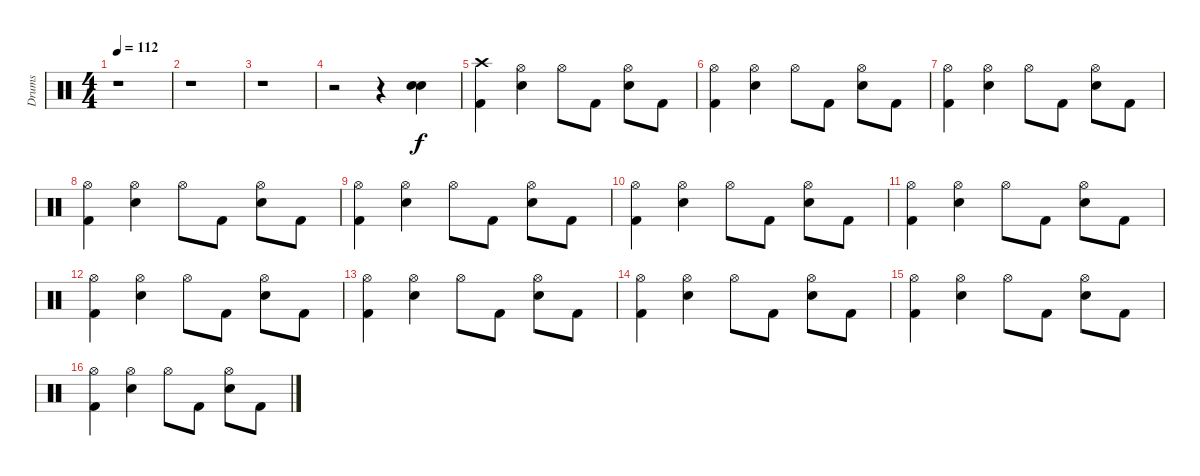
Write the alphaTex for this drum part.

\track ("Drums" "Drums") {instrument percussion}
\staff {score}
\articulation defaults
\ts (4 4)
\tempo 112
\clef neutral
\ks c
r.1{dy f} |
r.1 |
r.1 |
r.2 r.4 ("Snare (hit) 2" "Snare (hit) 2").4 |
("Crash high (hit)" "Kick (hit) 2").4 ("Hi-Hat (open)" "Snare (hit) 2").4 "Hi-Hat (open)".8 "Kick (hit) 2".8 ("Hi-Hat (open)" "Snare (hit) 2").8 "Kick (hit) 2".8 |
("Hi-Hat (open)" "Kick (hit) 2").4 ("Hi-Hat (open)" "Snare (hit) 2").4 "Hi-Hat (open)".8 "Kick (hit) 2".8 ("Hi-Hat (open)" "Snare (hit) 2").8 "Kick (hit) 2".8 |
("Hi-Hat (open)" "Kick (hit) 2").4 ("Hi-Hat (open)" "Snare (hit) 2").4 "Hi-Hat (open)".8 "Kick (hit) 2".8 ("Hi-Hat (open)" "Snare (hit) 2").8 "Kick (hit) 2".8 |
("Hi-Hat (open)" "Kick (hit) 2").4 ("Hi-Hat (open)" "Snare (hit) 2").4 "Hi-Hat (open)".8 "Kick (hit) 2".8 ("Hi-Hat (open)" "Snare (hit) 2").8 "Kick (hit) 2".8 |
("Hi-Hat (open)" "Kick (hit) 2").4 ("Hi-Hat (open)" "Snare (hit) 2").4 "Hi-Hat (open)".8 "Kick (hit) 2".8 ("Hi-Hat (open)" "Snare (hit) 2").8 "Kick (hit) 2".8 |
("Hi-Hat (open)" "Kick (hit) 2").4 ("Hi-Hat (open)" "Snare (hit) 2").4 "Hi-Hat (open)".8 "Kick (hit) 2".8 ("Hi-Hat (open)" "Snare (hit) 2").8 "Kick (hit) 2".8 |
("Hi-Hat (open)" "Kick (hit) 2").4 ("Hi-Hat (open)" "Snare (hit) 2").4 "Hi-Hat (open)".8 "Kick (hit) 2".8 ("Hi-Hat (open)" "Snare (hit) 2").8 "Kick (hit) 2".8 |
("Hi-Hat (open)" "Kick (hit) 2").4 ("Hi-Hat (open)" "Snare (hit) 2").4 "Hi-Hat (open)".8 "Kick (hit) 2".8 ("Hi-Hat (open)" "Snare (hit) 2").8 "Kick (hit) 2".8 |
("Hi-Hat (open)" "Kick (hit) 2").4 ("Hi-Hat (open)" "Snare (hit) 2").4 "Hi-Hat (open)".8 "Kick (hit) 2".8 ("Hi-Hat (open)" "Snare (hit) 2").8 "Kick (hit) 2".8 |
("Hi-Hat (open)" "Kick (hit) 2").4 ("Hi-Hat (open)" "Snare (hit) 2").4 "Hi-Hat (open)".8 "Kick (hit) 2".8 ("Hi-Hat (open)" "Snare (hit) 2").8 "Kick (hit) 2".8 |
("Hi-Hat (open)" "Kick (hit) 2").4 ("Hi-Hat (open)" "Snare (hit) 2").4 "Hi-Hat (open)".8 "Kick (hit) 2".8 ("Hi-Hat (open)" "Snare (hit) 2").8 "Kick (hit) 2".8 |
("Hi-Hat (open)" "Kick (hit) 2").4 ("Hi-Hat (open)" "Snare (hit) 2").4 "Hi-Hat (open)".8 "Kick (hit) 2".8 ("Hi-Hat (open)" "Snare (hit) 2").8 "Kick (hit) 2".8
